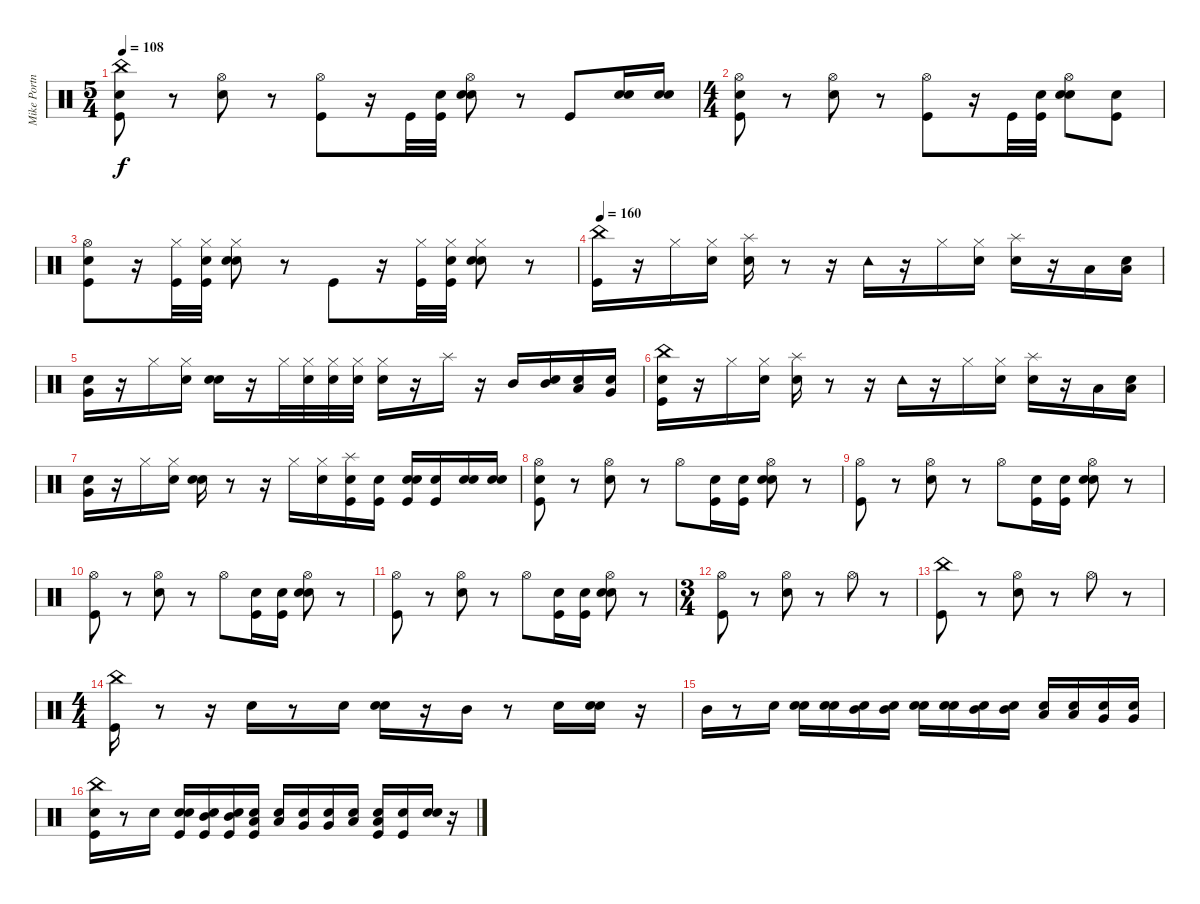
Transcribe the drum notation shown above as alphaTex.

\track ("Mike Portnoy - Drum" "Mike Portn") {instrument percussion}
\staff {score}
\articulation defaults
\ts (5 4)
\tempo 108
\clef neutral
\ks c
("Snare (hit)" "Kick (hit)" "China (hit)").8{dy f} r.8 ("Snare (hit) 2" "Hi-Hat (open)").8 r.8 ("Kick (hit)" "Hi-Hat (open)").8 r.16 "Kick (hit)".32 ("Snare (hit)" "Kick (hit)").32 ("Snare (hit)" "Snare (hit) 2" "Hi-Hat (open)").8 r.8 "Kick (hit)".8 ("Snare (hit)" "Snare (hit) 2").16 ("Snare (hit)" "Snare (hit) 2").16 |
\ts (4 4)
("Snare (hit)" "Kick (hit)" "Hi-Hat (open)").8 r.8 ("Snare (hit) 2" "Hi-Hat (open)").8 r.8 ("Kick (hit)" "Hi-Hat (open)").8 r.16 "Kick (hit)".32 ("Snare (hit)" "Kick (hit)").32 ("Snare (hit)" "Snare (hit) 2" "Hi-Hat (open)").8 ("Snare (hit)" "Kick (hit)").8 |
("Snare (hit)" "Kick (hit)" "Hi-Hat (open)").8 r.16 ("Kick (hit)" "Hi-Hat (closed)").32 ("Snare (hit)" "Kick (hit)" "Hi-Hat (closed)").32 ("Snare (hit)" "Snare (hit) 2" "Hi-Hat (closed)").8 r.8 "Kick (hit)".8 r.16 ("Kick (hit)" "Hi-Hat (closed)").32 ("Snare (hit)" "Kick (hit)" "Hi-Hat (closed)").32 ("Snare (hit)" "Snare (hit) 2" "Hi-Hat (closed)").8 r.8 |
\tempo 160
("Kick (hit)" "China (hit)").16 r.16 "Hi-Hat (closed)".16 ("Snare (hit)" "Hi-Hat (closed)").16 ("Snare (hit)" "Splash (hit)").16 r.8 r.16 "Tambourine (hit)".16 r.16 "Hi-Hat (closed)".16 ("Snare (hit)" "Hi-Hat (closed)").16 ("Snare (hit)" "Splash (hit)").16 r.16 "Low Tom (hit)".16 ("Snare (hit)" "Low Tom (hit)").16 |
("Snare (hit)" "Very Low Tom (hit)").16 r.16 "Hi-Hat (closed)".16 ("Snare (hit)" "Hi-Hat (closed)").16 ("Snare (hit)" "Snare (hit) 2").16 r.16 "Hi-Hat (closed)".32 ("Snare (hit)" "Hi-Hat (closed)").32 ("Snare (hit)" "Hi-Hat (closed)").32 ("Snare (hit)" "Hi-Hat (closed)").32 ("Snare (hit)" "Hi-Hat (closed)").16 r.16 "Splash (hit)".16 r.16 "Mid Tom (hit)".16 ("Snare (hit)" "Mid Tom (hit)").16 ("Snare (hit)" "Low Tom (hit)").16 ("Snare (hit)" "Very Low Tom (hit)").16 |
("Snare (hit)" "Kick (hit)" "China (hit)").16 r.16 "Hi-Hat (closed)".16 ("Snare (hit)" "Hi-Hat (closed)").16 ("Snare (hit)" "Splash (hit)").16 r.8 r.16 "Tambourine (hit)".16 r.16 "Hi-Hat (closed)".16 ("Snare (hit)" "Hi-Hat (closed)").16 ("Snare (hit)" "Splash (hit)").16 r.16 "Low Tom (hit)".16 ("Snare (hit)" "Low Tom (hit)").16 |
("Snare (hit)" "Very Low Tom (hit)").16 r.16 "Hi-Hat (closed)".16 ("Snare (hit)" "Hi-Hat (closed)").16 ("Snare (hit)" "Snare (hit) 2").16 r.8 r.16 "Hi-Hat (closed)".16 ("Snare (hit)" "Hi-Hat (closed)").16 ("Snare (hit)" "Kick (hit)" "Splash (hit)").16 ("Snare (hit)" "Kick (hit)").16 ("Snare (hit)" "Kick (hit)" "Snare (hit) 2").16 ("Snare (hit)" "Kick (hit)").16 ("Snare (hit)" "Snare (hit) 2").16 ("Snare (hit)" "Snare (hit) 2").16 |
("Snare (hit)" "Kick (hit)" "Hi-Hat (open)").8 r.8 ("Snare (hit) 2" "Hi-Hat (open)").8 r.8 "Hi-Hat (open)".8 ("Snare (hit)" "Kick (hit)").16 ("Snare (hit)" "Kick (hit)").16 ("Snare (hit)" "Snare (hit) 2" "Hi-Hat (open)").8 r.8 |
("Kick (hit)" "Hi-Hat (open)").8 r.8 ("Snare (hit) 2" "Hi-Hat (open)").8 r.8 "Hi-Hat (open)".8 ("Snare (hit)" "Kick (hit)").16 ("Snare (hit)" "Kick (hit)").16 ("Snare (hit)" "Snare (hit) 2" "Hi-Hat (open)").8 r.8 |
("Kick (hit)" "Hi-Hat (open)").8 r.8 ("Snare (hit) 2" "Hi-Hat (open)").8 r.8 "Hi-Hat (open)".8 ("Snare (hit)" "Kick (hit)").16 ("Snare (hit)" "Kick (hit)").16 ("Snare (hit)" "Snare (hit) 2" "Hi-Hat (open)").8 r.8 |
("Kick (hit)" "Hi-Hat (open)").8 r.8 ("Snare (hit) 2" "Hi-Hat (open)").8 r.8 "Hi-Hat (open)".8 ("Snare (hit)" "Kick (hit)").16 ("Snare (hit)" "Kick (hit)").16 ("Snare (hit)" "Snare (hit) 2" "Hi-Hat (open)").8 r.8 |
\ts (3 4)
("Kick (hit)" "Hi-Hat (open)").8 r.8 ("Snare (hit) 2" "Hi-Hat (open)").8 r.8 "Hi-Hat (open)".8 r.8 |
("Kick (hit)" "China (hit)").8 r.8 ("Snare (hit) 2" "Hi-Hat (open)").8 r.8 "Hi-Hat (open)".8 r.8 |
\ts (4 4)
("Kick (hit)" "China (hit)").16 r.8 r.16 "Snare (hit) 2".16 r.8 "Snare (hit) 2".16 ("Snare (hit)" "Snare (hit) 2").16 r.16 "Mid Tom (hit)".16 r.8 "Snare (hit) 2".16 ("Snare (hit)" "Snare (hit) 2").16 r.16 |
"Mid Tom (hit)".16 r.8 "Snare (hit) 2".16 ("Snare (hit)" "Snare (hit) 2").16 ("Snare (hit)" "Snare (hit) 2").16 ("Snare (hit)" "Mid Tom (hit)").16 ("Snare (hit)" "Mid Tom (hit)").16 ("Snare (hit)" "Snare (hit) 2").16 ("Snare (hit)" "Snare (hit) 2").16 ("Snare (hit)" "Mid Tom (hit)").16 ("Snare (hit)" "Mid Tom (hit)").16 ("Snare (hit)" "Low Tom (hit)").16 ("Snare (hit)" "Low Tom (hit)").16 ("Snare (hit)" "Very Low Tom (hit)").16 ("Snare (hit)" "Very Low Tom (hit)").16 |
("Snare (hit)" "Kick (hit)" "China (hit)").16 r.8 "Snare (hit) 2".16 ("Snare (hit)" "Kick (hit)" "Snare (hit) 2").16 ("Snare (hit)" "Kick (hit)" "Mid Tom (hit)").16 ("Snare (hit)" "Kick (hit)" "Mid Tom (hit)").16 ("Snare (hit)" "Kick (hit)" "Low Tom (hit)").16 ("Snare (hit)" "Low Tom (hit)").16 ("Snare (hit)" "Very Low Tom (hit)").16 ("Snare (hit)" "Very Low Tom (hit)").16 ("Snare (hit)" "Low Floor Tom (hit)").16 ("Snare (hit)" "Kick (hit)" "Low Floor Tom (hit)").16 ("Snare (hit)" "Kick (hit)").16 ("Snare (hit)" "Snare (hit) 2").16 r.16
